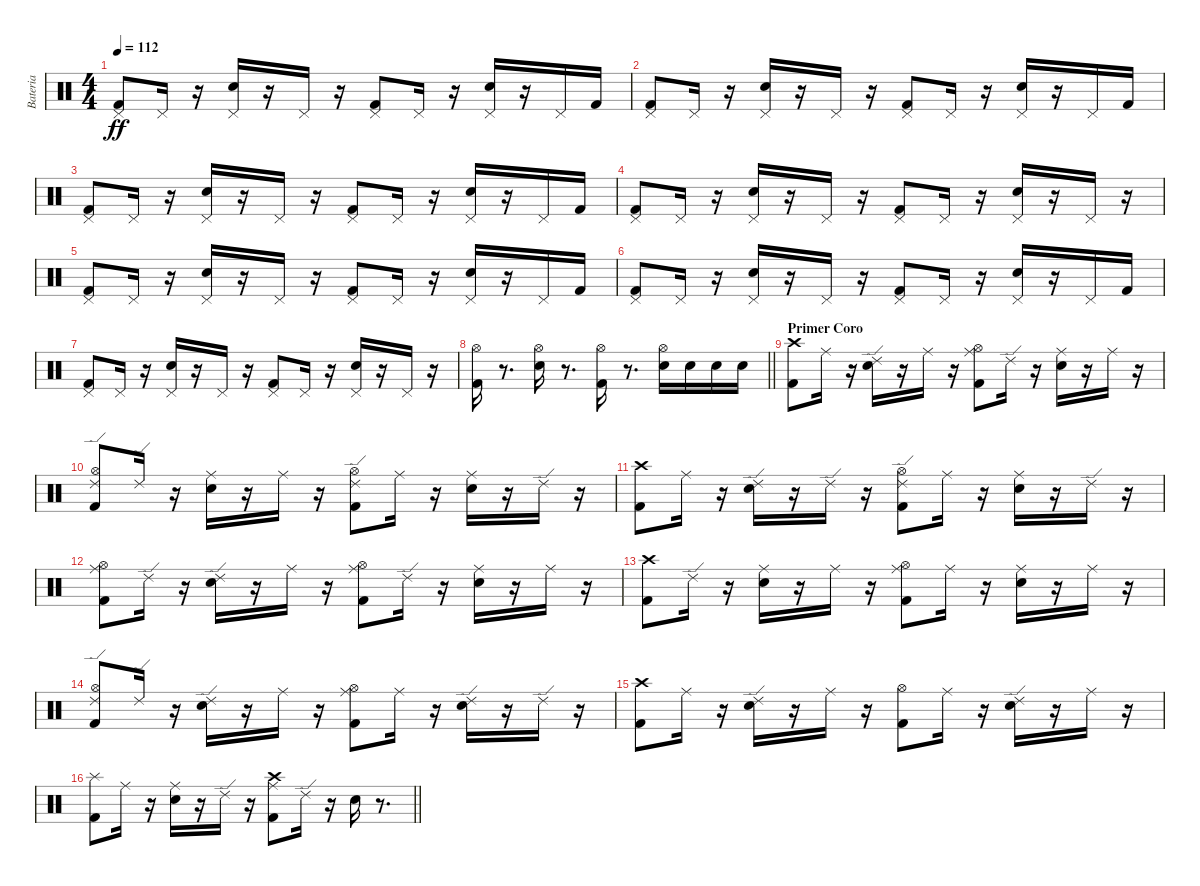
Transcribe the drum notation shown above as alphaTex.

\track ("Bateria" "Bateria") {instrument percussion}
\staff {score}
\articulation defaults
\ts (4 4)
\tempo 112
\clef neutral
\ks c
("Kick (hit) 2" "Pedal Hi-Hat (hit)").8{dy ff} "Pedal Hi-Hat (hit)".16 r.16 ("Snare (hit) 2" "Pedal Hi-Hat (hit)").16 r.16 "Pedal Hi-Hat (hit)".16 r.16 ("Pedal Hi-Hat (hit)" "Kick (hit) 2").8 "Pedal Hi-Hat (hit)".16 r.16 ("Pedal Hi-Hat (hit)" "Snare (hit) 2").16 r.16 "Pedal Hi-Hat (hit)".16 "Kick (hit) 2".16 |
("Pedal Hi-Hat (hit)" "Kick (hit) 2").8 "Pedal Hi-Hat (hit)".16 r.16 ("Pedal Hi-Hat (hit)" "Snare (hit) 2").16 r.16 "Pedal Hi-Hat (hit)".16 r.16 ("Pedal Hi-Hat (hit)" "Kick (hit) 2").8 "Pedal Hi-Hat (hit)".16 r.16 ("Pedal Hi-Hat (hit)" "Snare (hit) 2").16 r.16 "Pedal Hi-Hat (hit)".16 "Kick (hit) 2".16 |
("Pedal Hi-Hat (hit)" "Kick (hit) 2").8 "Pedal Hi-Hat (hit)".16 r.16 ("Pedal Hi-Hat (hit)" "Snare (hit) 2").16 r.16 "Pedal Hi-Hat (hit)".16 r.16 ("Pedal Hi-Hat (hit)" "Kick (hit) 2").8 "Pedal Hi-Hat (hit)".16 r.16 ("Pedal Hi-Hat (hit)" "Snare (hit) 2").16 r.16 "Pedal Hi-Hat (hit)".16 "Kick (hit) 2".16 |
("Pedal Hi-Hat (hit)" "Kick (hit) 2").8 "Pedal Hi-Hat (hit)".16 r.16 ("Pedal Hi-Hat (hit)" "Snare (hit) 2").16 r.16 "Pedal Hi-Hat (hit)".16 r.16 ("Pedal Hi-Hat (hit)" "Kick (hit) 2").8 "Pedal Hi-Hat (hit)".16 r.16 ("Pedal Hi-Hat (hit)" "Snare (hit) 2").16 r.16 "Pedal Hi-Hat (hit)".16 r.16 |
("Kick (hit) 2" "Pedal Hi-Hat (hit)").8 "Pedal Hi-Hat (hit)".16 r.16 ("Snare (hit) 2" "Pedal Hi-Hat (hit)").16 r.16 "Pedal Hi-Hat (hit)".16 r.16 ("Pedal Hi-Hat (hit)" "Kick (hit) 2").8 "Pedal Hi-Hat (hit)".16 r.16 ("Pedal Hi-Hat (hit)" "Snare (hit) 2").16 r.16 "Pedal Hi-Hat (hit)".16 "Kick (hit) 2".16 |
("Pedal Hi-Hat (hit)" "Kick (hit) 2").8 "Pedal Hi-Hat (hit)".16 r.16 ("Pedal Hi-Hat (hit)" "Snare (hit) 2").16 r.16 "Pedal Hi-Hat (hit)".16 r.16 ("Pedal Hi-Hat (hit)" "Kick (hit) 2").8 "Pedal Hi-Hat (hit)".16 r.16 ("Pedal Hi-Hat (hit)" "Snare (hit) 2").16 r.16 "Pedal Hi-Hat (hit)".16 "Kick (hit) 2".16 |
("Pedal Hi-Hat (hit)" "Kick (hit) 2").8 "Pedal Hi-Hat (hit)".16 r.16 ("Pedal Hi-Hat (hit)" "Snare (hit) 2").16 r.16 "Pedal Hi-Hat (hit)".16 r.16 ("Pedal Hi-Hat (hit)" "Kick (hit) 2").8 "Pedal Hi-Hat (hit)".16 r.16 ("Pedal Hi-Hat (hit)" "Snare (hit) 2").16 r.16 "Pedal Hi-Hat (hit)".16 r.16 |
\barLineRight lightlight
("Kick (hit) 2" "Hi-Hat (open)").16 r.8{d} ("Snare (hit) 2" "Hi-Hat (open)").16 r.8{d} ("Kick (hit) 2" "Hi-Hat (open)").16 r.8{d} ("Snare (hit) 2" "Hi-Hat (open)").16 "Snare (hit) 2".16 "Snare (hit) 2".16 "Snare (hit) 2".16 |
\section ("" "Primer Coro")
("Crash high (hit)" "Kick (hit) 2").8 "Ride (middle)".16 r.16 ("Ride (edge) 2" "Snare (hit) 2").16 r.16 "Ride (middle)".16 r.16 ("Ride (middle)" "Hi-Hat (open)" "Kick (hit) 2").8 "Ride (edge) 2".16 r.16 ("Ride (middle)" "Snare (hit) 2").16 r.16 "Ride (middle)".16 r.16 |
("Ride (edge) 2" "Kick (hit) 2" "Hi-Hat (open)").8 "Ride (edge) 2".16 r.16 ("Ride (middle)" "Snare (hit) 2").16 r.16 "Ride (middle)".16 r.16 ("Ride (edge) 2" "Kick (hit) 2" "Hi-Hat (open)").8 "Ride (middle)".16 r.16 ("Ride (middle)" "Snare (hit) 2").16 r.16 "Ride (edge) 2".16 r.16 |
("Kick (hit) 2" "Crash high (hit)").8 "Ride (middle)".16 r.16 ("Ride (edge) 2" "Snare (hit) 2").16 r.16 "Ride (edge) 2".16 r.16 ("Ride (edge) 2" "Kick (hit) 2" "Hi-Hat (open)").8 "Ride (middle)".16 r.16 ("Ride (middle)" "Snare (hit) 2").16 r.16 "Ride (edge) 2".16 r.16 |
("Ride (middle)" "Hi-Hat (open)" "Kick (hit) 2").8 "Ride (edge) 2".16 r.16 ("Ride (edge) 2" "Snare (hit) 2").16 r.16 "Ride (middle)".16 r.16 ("Ride (middle)" "Kick (hit) 2" "Hi-Hat (open)").8 "Ride (edge) 2".16 r.16 ("Ride (middle)" "Snare (hit) 2").16 r.16 "Ride (middle)".16 r.16 |
("Kick (hit) 2" "Crash high (hit)").8 "Ride (edge) 2".16 r.16 ("Ride (middle)" "Snare (hit) 2").16 r.16 "Ride (middle)".16 r.16 ("Ride (middle)" "Kick (hit) 2" "Hi-Hat (open)").8 "Ride (middle)".16 r.16 ("Ride (middle)" "Snare (hit) 2").16 r.16 "Ride (middle)".16 r.16 |
("Ride (edge) 2" "Kick (hit) 2" "Hi-Hat (open)").8 "Ride (edge) 2".16 r.16 ("Ride (edge) 2" "Snare (hit) 2").16 r.16 "Ride (middle)".16 r.16 ("Ride (middle)" "Kick (hit) 2" "Hi-Hat (open)").8 "Ride (middle)".16 r.16 ("Ride (edge) 2" "Snare (hit) 2").16 r.16 "Ride (edge) 2".16 r.16 |
("Kick (hit) 2" "Crash high (hit)").8 "Ride (middle)".16 r.16 ("Ride (edge) 2" "Snare (hit) 2").16 r.16 "Ride (middle)".16 r.16 ("Kick (hit) 2" "Hi-Hat (open)").8 "Ride (middle)".16 r.16 ("Ride (edge) 2" "Snare (hit) 2").16 r.16 "Ride (middle)".16 r.16 |
\barLineRight lightlight
("Kick (hit) 2" "Splash (hit)").8 "Ride (middle)".16 r.16 ("Ride (middle)" "Snare (hit) 2").16 r.16 "Ride (edge) 2".16 r.16 ("Ride (middle)" "Kick (hit) 2" "Crash high (hit)").8 "Ride (edge) 2".16 r.16 "Snare (hit) 2".16 r.8{d}
